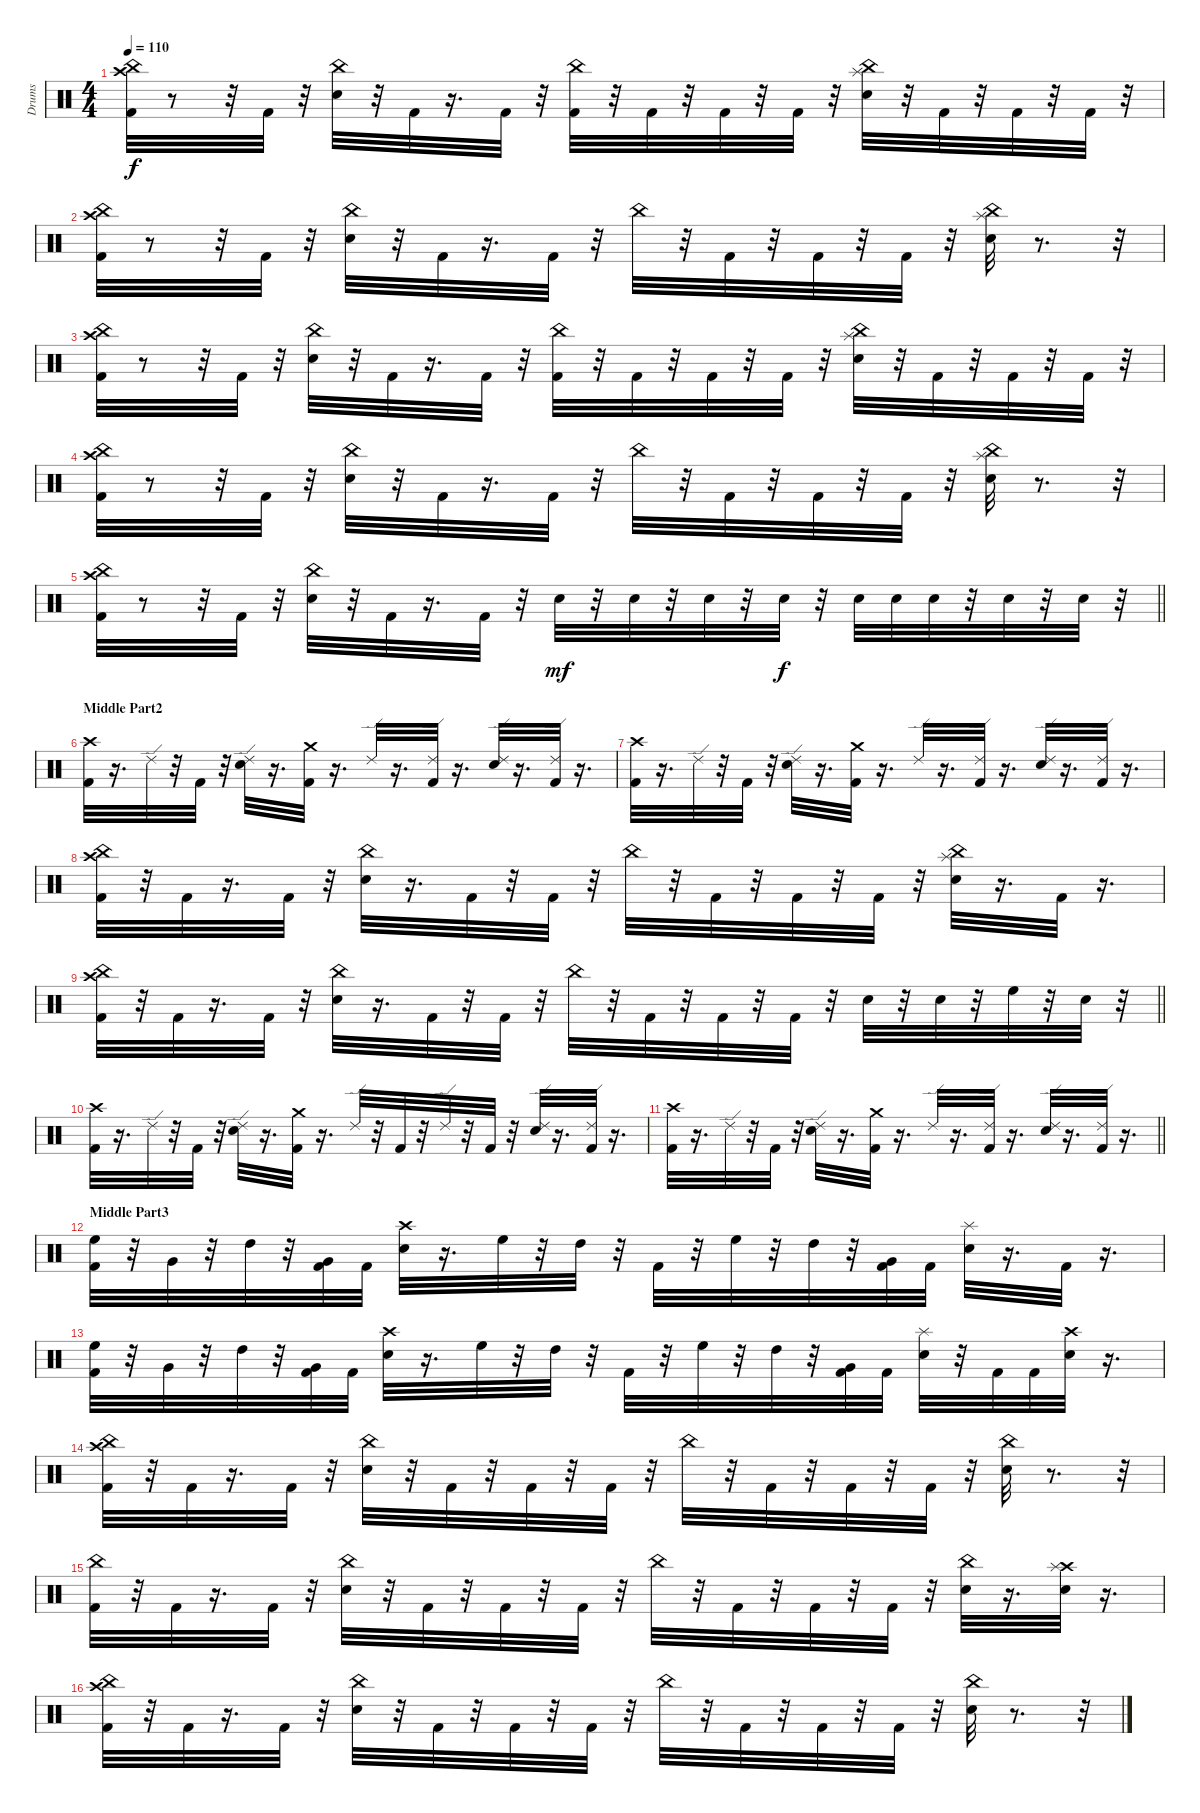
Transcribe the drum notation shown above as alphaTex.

\track ("Drums" "Drums") {instrument percussion}
\staff {score}
\articulation defaults
\ts (4 4)
\tempo 110
\clef neutral
\ks c
("Kick (hit) 2" "Crash high (hit)" "China (hit)").32{dy f} r.8 r.32 "Kick (hit) 2".32 r.32 ("Snare (hit) 2" "China (hit)").32 r.32 "Kick (hit) 2".32 r.16{d} "Kick (hit) 2".32 r.32 ("Kick (hit) 2" "China (hit)").32 r.32 "Kick (hit) 2".32 r.32 "Kick (hit) 2".32 r.32 "Kick (hit) 2".32 r.32 ("Snare (hit) 2" "China (hit)" "Splash (hit)").32 r.32 "Kick (hit) 2".32 r.32 "Kick (hit) 2".32 r.32 "Kick (hit) 2".32 r.32 |
("Kick (hit) 2" "Crash high (hit)" "China (hit)").32 r.8 r.32 "Kick (hit) 2".32 r.32 ("Snare (hit) 2" "China (hit)").32 r.32 "Kick (hit) 2".32 r.16{d} "Kick (hit) 2".32 r.32 "China (hit)".32 r.32 "Kick (hit) 2".32 r.32 "Kick (hit) 2".32 r.32 "Kick (hit) 2".32 r.32 ("Snare (hit) 2" "China (hit)" "Splash (hit)").32 r.8{d} r.32 |
("Kick (hit) 2" "Crash high (hit)" "China (hit)").32 r.8 r.32 "Kick (hit) 2".32 r.32 ("Snare (hit) 2" "China (hit)").32 r.32 "Kick (hit) 2".32 r.16{d} "Kick (hit) 2".32 r.32 ("Kick (hit) 2" "China (hit)").32 r.32 "Kick (hit) 2".32 r.32 "Kick (hit) 2".32 r.32 "Kick (hit) 2".32 r.32 ("Snare (hit) 2" "China (hit)" "Splash (hit)").32 r.32 "Kick (hit) 2".32 r.32 "Kick (hit) 2".32 r.32 "Kick (hit) 2".32 r.32 |
("Kick (hit) 2" "Crash high (hit)" "China (hit)").32 r.8 r.32 "Kick (hit) 2".32 r.32 ("Snare (hit) 2" "China (hit)").32 r.32 "Kick (hit) 2".32 r.16{d} "Kick (hit) 2".32 r.32 "China (hit)".32 r.32 "Kick (hit) 2".32 r.32 "Kick (hit) 2".32 r.32 "Kick (hit) 2".32 r.32 ("Snare (hit) 2" "China (hit)" "Splash (hit)").32 r.8{d} r.32 |
\barLineRight lightlight
("Kick (hit) 2" "Crash high (hit)" "China (hit)").32 r.8 r.32 "Kick (hit) 2".32 r.32 ("Snare (hit) 2" "China (hit)").32 r.32 "Kick (hit) 2".32 r.16{d} "Kick (hit) 2".32 r.32 "Snare (hit) 2".32{dy mf} r.32 "Snare (hit) 2".32 r.32 "Snare (hit) 2".32 r.32 "Snare (hit) 2".32{dy f} r.32 "Snare (hit) 2".32 "Snare (hit) 2".32 "Snare (hit) 2".32 r.32 "Snare (hit) 2".32 r.32 "Snare (hit) 2".32 r.32 |
\section ("" "Middle Part2")
("Kick (hit) 2" "Crash high (hit)").32 r.16{d} "Ride (edge) 2".32 r.32 "Kick (hit) 2".32 r.32 ("Snare (hit) 2" "Ride (edge) 2").32 r.16{d} ("Kick (hit) 2" "Crash medium (hit)").32 r.16{d} "Ride (edge) 2".32 r.16{d} ("Kick (hit) 2" "Ride (edge) 2").32 r.16{d} ("Snare (hit) 2" "Ride (edge) 2").32 r.16{d} ("Kick (hit) 2" "Ride (edge) 2").32 r.16{d} |
("Kick (hit) 2" "Crash high (hit)").32 r.16{d} "Ride (edge) 2".32 r.32 "Kick (hit) 2".32 r.32 ("Snare (hit) 2" "Ride (edge) 2").32 r.16{d} ("Kick (hit) 2" "Crash medium (hit)").32 r.16{d} "Ride (edge) 2".32 r.16{d} ("Kick (hit) 2" "Ride (edge) 2").32 r.16{d} ("Snare (hit) 2" "Ride (edge) 2").32 r.16{d} ("Kick (hit) 2" "Ride (edge) 2").32 r.16{d} |
("Kick (hit) 2" "Crash high (hit)" "China (hit)").32 r.32 "Kick (hit) 2".32 r.16{d} "Kick (hit) 2".32 r.32 ("Snare (hit) 2" "China (hit)").32 r.16{d} "Kick (hit) 2".32 r.32 "Kick (hit) 2".32 r.32 "China (hit)".32 r.32 "Kick (hit) 2".32 r.32 "Kick (hit) 2".32 r.32 "Kick (hit) 2".32 r.32 ("Snare (hit) 2" "China (hit)" "Splash (hit)").32 r.16{d} "Kick (hit) 2".32 r.16{d} |
\barLineRight lightlight
("Kick (hit) 2" "Crash high (hit)" "China (hit)").32 r.32 "Kick (hit) 2".32 r.16{d} "Kick (hit) 2".32 r.32 ("Snare (hit) 2" "China (hit)").32 r.16{d} "Kick (hit) 2".32 r.32 "Kick (hit) 2".32 r.32 "China (hit)".32 r.32 "Kick (hit) 2".32 r.32 "Kick (hit) 2".32 r.32 "Kick (hit) 2".32 r.32 "Snare (hit) 2".32 r.32 "Snare (hit) 2".32 r.32 "High Floor Tom (hit)".32 r.32 "Snare (hit) 2".32 r.32 |
("Kick (hit) 2" "Crash high (hit)").32 r.16{d} "Ride (edge) 2".32 r.32 "Kick (hit) 2".32 r.32 ("Snare (hit) 2" "Ride (edge) 2").32 r.16{d} ("Kick (hit) 2" "Crash medium (hit)").32 r.16{d} "Ride (edge) 2".32 r.32 "Kick (hit) 2".32 r.32 "Ride (edge) 2".32 r.32 "Kick (hit) 2".32 r.32 ("Snare (hit) 2" "Ride (edge) 2").32 r.16{d} ("Kick (hit) 2" "Ride (edge) 2").32 r.16{d} |
\barLineRight lightlight
("Kick (hit) 2" "Crash high (hit)").32 r.16{d} "Ride (edge) 2".32 r.32 "Kick (hit) 2".32 r.32 ("Snare (hit) 2" "Ride (edge) 2").32 r.16{d} ("Kick (hit) 2" "Crash medium (hit)").32 r.16{d} "Ride (edge) 2".32 r.16{d} ("Kick (hit) 2" "Ride (edge) 2").32 r.16{d} ("Snare (hit) 2" "Ride (edge) 2").32 r.16{d} ("Kick (hit) 2" "Ride (edge) 2").32 r.16{d} |
\section ("" "Middle Part3")
("Kick (hit) 2" "High Floor Tom (hit)").32 r.32 "Very Low Tom (hit)".32 r.32 "High Tom (hit)".32 r.32 ("Kick (hit) 2" "Very Low Tom (hit)").32 "Kick (hit) 2".32 ("Snare (hit) 2" "Crash high (hit)").32 r.16{d} "High Floor Tom (hit)".32 r.32 "High Tom (hit)".32 r.32 "Kick (hit) 2".32 r.32 "High Floor Tom (hit)".32 r.32 "High Tom (hit)".32 r.32 ("Kick (hit) 2" "Very Low Tom (hit)").32 "Kick (hit) 2".32 ("Snare (hit) 2" "Splash (hit)").32 r.16{d} "Kick (hit) 2".32 r.16{d} |
("Kick (hit) 2" "High Floor Tom (hit)").32 r.32 "Very Low Tom (hit)".32 r.32 "High Tom (hit)".32 r.32 ("Kick (hit) 2" "Very Low Tom (hit)").32 "Kick (hit) 2".32 ("Snare (hit) 2" "Crash high (hit)").32 r.16{d} "High Floor Tom (hit)".32 r.32 "High Tom (hit)".32 r.32 "Kick (hit) 2".32 r.32 "High Floor Tom (hit)".32 r.32 "High Tom (hit)".32 r.32 ("Kick (hit) 2" "Very Low Tom (hit)").32 "Kick (hit) 2".32 ("Snare (hit) 2" "Splash (hit)").32 r.32 "Kick (hit) 2".32 "Kick (hit) 2".32 ("Snare (hit) 2" "Crash high (hit)").32 r.16{d} |
("Kick (hit) 2" "Crash high (hit)" "China (hit)").32 r.32 "Kick (hit) 2".32 r.16{d} "Kick (hit) 2".32 r.32 ("Snare (hit) 2" "China (hit)").32 r.32 "Kick (hit) 2".32 r.32 "Kick (hit) 2".32 r.32 "Kick (hit) 2".32 r.32 "China (hit)".32 r.32 "Kick (hit) 2".32 r.32 "Kick (hit) 2".32 r.32 "Kick (hit) 2".32 r.32 ("Snare (hit) 2" "China (hit)").32 r.8{d} r.32 |
("Kick (hit) 2" "China (hit)").32 r.32 "Kick (hit) 2".32 r.16{d} "Kick (hit) 2".32 r.32 ("Snare (hit) 2" "China (hit)").32 r.32 "Kick (hit) 2".32 r.32 "Kick (hit) 2".32 r.32 "Kick (hit) 2".32 r.32 "China (hit)".32 r.32 "Kick (hit) 2".32 r.32 "Kick (hit) 2".32 r.32 "Kick (hit) 2".32 r.32 ("Snare (hit) 2" "China (hit)").32 r.16{d} ("Snare (hit) 2" "Crash high (hit)" "Splash (hit)").32 r.16{d} |
("Kick (hit) 2" "Crash high (hit)" "China (hit)").32 r.32 "Kick (hit) 2".32 r.16{d} "Kick (hit) 2".32 r.32 ("Snare (hit) 2" "China (hit)").32 r.32 "Kick (hit) 2".32 r.32 "Kick (hit) 2".32 r.32 "Kick (hit) 2".32 r.32 "China (hit)".32 r.32 "Kick (hit) 2".32 r.32 "Kick (hit) 2".32 r.32 "Kick (hit) 2".32 r.32 ("Snare (hit) 2" "China (hit)").32 r.8{d} r.32
